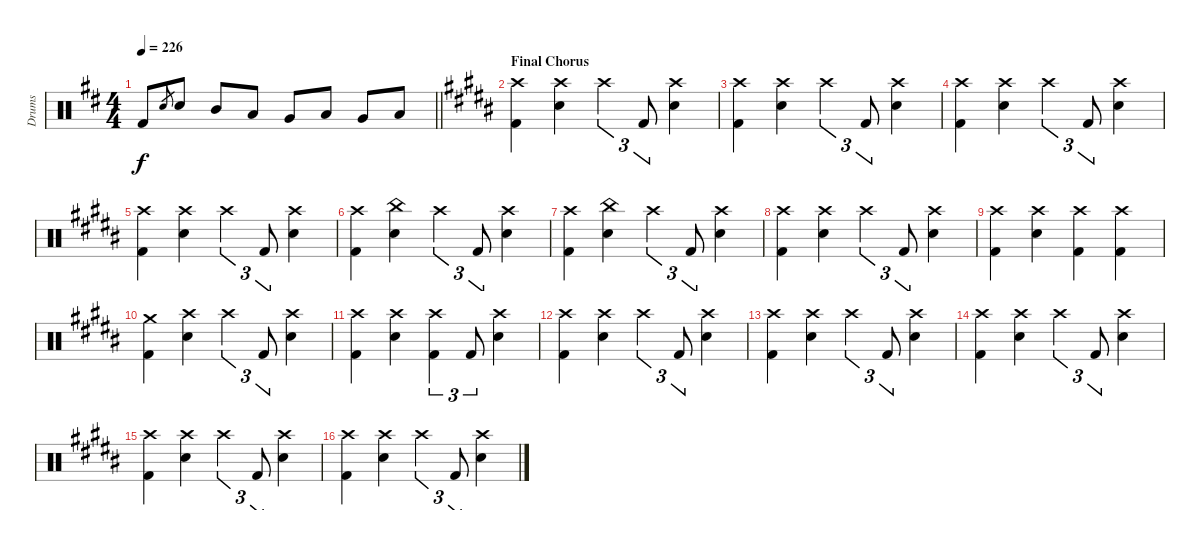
\track ("Drums" "Drums") {instrument percussion}
\staff {score}
\articulation defaults
\ts (4 4)
\tempo 226
\clef neutral
\barLineRight lightlight
\ks d "Kick (hit) 2".8{dy f} "Snare (hit) 2".8{gr} "Snare (hit) 2".8 "Mid Tom (hit)".8 "Low Tom (hit)".8 "Very Low Tom (hit)".8 "Low Tom (hit)".8 "Very Low Tom (hit)".8 "Low Floor Tom (hit)".8
|
\section ("" "Final Chorus")
\ks b
("Crash high (hit)" "Kick (hit) 2").4 ("Crash high (hit)" "Snare (hit) 2").4 "Crash high (hit)".4{tu (3 2)} "Kick (hit) 2".8{tu (3 2)} ("Crash high (hit)" "Snare (hit) 2").4 |
("Crash high (hit)" "Kick (hit) 2").4 ("Crash high (hit)" "Snare (hit) 2").4 "Crash high (hit)".4{tu (3 2)} "Kick (hit) 2".8{tu (3 2)} ("Crash high (hit)" "Snare (hit) 2").4 |
("Crash high (hit)" "Kick (hit) 2").4 ("Crash high (hit)" "Snare (hit) 2").4 "Crash high (hit)".4{tu (3 2)} "Kick (hit) 2".8{tu (3 2)} ("Crash high (hit)" "Snare (hit) 2").4 |
("Crash high (hit)" "Kick (hit) 2").4 ("Crash high (hit)" "Snare (hit) 2").4 "Crash high (hit)".4{tu (3 2)} "Kick (hit) 2".8{tu (3 2)} ("Crash high (hit)" "Snare (hit) 2").4 |
("Crash high (hit)" "Kick (hit) 2").4 ("China (hit)" "Snare (hit) 2").4 "Crash high (hit)".4{tu (3 2)} "Kick (hit) 2".8{tu (3 2)} ("Crash high (hit)" "Snare (hit) 2").4 |
("Crash high (hit)" "Kick (hit) 2").4 ("China (hit)" "Snare (hit) 2").4 "Crash high (hit)".4{tu (3 2)} "Kick (hit) 2".8{tu (3 2)} ("Crash high (hit)" "Snare (hit) 2").4 |
("Crash high (hit)" "Kick (hit) 2").4 ("Crash high (hit)" "Snare (hit) 2").4 "Crash high (hit)".4{tu (3 2)} "Kick (hit) 2".8{tu (3 2)} ("Crash high (hit)" "Snare (hit) 2").4 |
("Crash high (hit)" "Kick (hit) 2").4 ("Crash high (hit)" "Snare (hit) 2").4 ("Crash high (hit)" "Kick (hit) 2").4 ("Crash high (hit)" "Kick (hit) 2").4 |
("Crash medium (hit)" "Kick (hit) 2").4 ("Crash high (hit)" "Snare (hit) 2").4 "Crash high (hit)".4{tu (3 2)} "Kick (hit) 2".8{tu (3 2)} ("Crash high (hit)" "Snare (hit) 2").4 |
("Crash high (hit)" "Kick (hit) 2").4 ("Crash high (hit)" "Snare (hit) 2").4 ("Crash high (hit)" "Kick (hit) 2").4{tu (3 2)} "Kick (hit) 2".8{tu (3 2)} ("Crash high (hit)" "Snare (hit) 2").4 |
("Crash high (hit)" "Kick (hit) 2").4 ("Crash high (hit)" "Snare (hit) 2").4 "Crash high (hit)".4{tu (3 2)} "Kick (hit) 2".8{tu (3 2)} ("Crash high (hit)" "Snare (hit) 2").4 |
("Crash high (hit)" "Kick (hit) 2").4 ("Crash high (hit)" "Snare (hit) 2").4 "Crash high (hit)".4{tu (3 2)} "Kick (hit) 2".8{tu (3 2)} ("Crash high (hit)" "Snare (hit) 2").4 |
("Crash high (hit)" "Kick (hit) 2").4 ("Crash high (hit)" "Snare (hit) 2").4 "Crash high (hit)".4{tu (3 2)} "Kick (hit) 2".8{tu (3 2)} ("Crash high (hit)" "Snare (hit) 2").4 |
("Crash high (hit)" "Kick (hit) 2").4 ("Crash high (hit)" "Snare (hit) 2").4 "Crash high (hit)".4{tu (3 2)} "Kick (hit) 2".8{tu (3 2)} ("Crash high (hit)" "Snare (hit) 2").4 |
("Crash high (hit)" "Kick (hit) 2").4 ("Crash high (hit)" "Snare (hit) 2").4 "Crash high (hit)".4{tu (3 2)} "Kick (hit) 2".8{tu (3 2)} ("Crash high (hit)" "Snare (hit) 2").4
